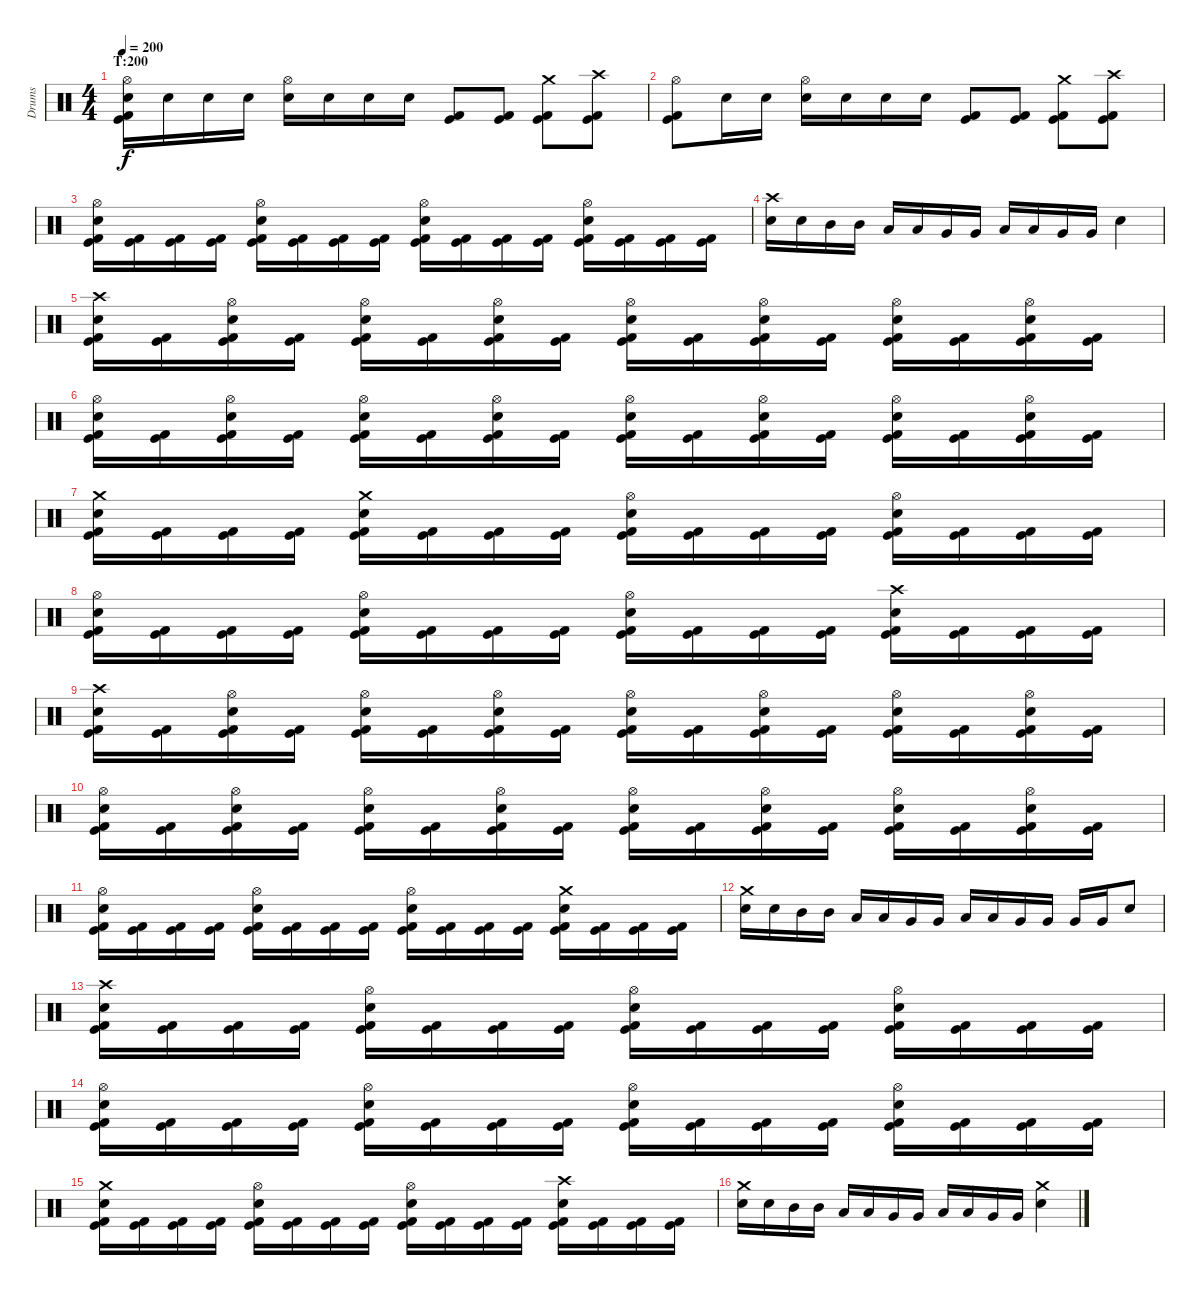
\track ("Drums" "Drums") {instrument percussion}
\staff {score}
\articulation defaults
\ts (4 4)
\section ("" "T:200")
\tempo 200
\clef neutral
\ks c
("Hi-Hat (open)" "Electric Snare (hit)" "Kick (hit)" "Kick (hit) 2").16{dy f} "Electric Snare (hit)".16 "Electric Snare (hit)".16 "Electric Snare (hit)".16 ("Hi-Hat (open)" "Electric Snare (hit)").16 "Electric Snare (hit)".16 "Electric Snare (hit)".16 "Electric Snare (hit)".16 ("Kick (hit)" "Kick (hit) 2").8 ("Kick (hit)" "Kick (hit) 2").8 ("Crash medium (hit)" "Kick (hit)" "Kick (hit) 2").8 ("Crash high (hit)" "Kick (hit)" "Kick (hit) 2").8 |
("Hi-Hat (open)" "Kick (hit)" "Kick (hit) 2").8 "Electric Snare (hit)".16 "Electric Snare (hit)".16 ("Hi-Hat (open)" "Electric Snare (hit)").16 "Electric Snare (hit)".16 "Electric Snare (hit)".16 "Electric Snare (hit)".16 ("Kick (hit)" "Kick (hit) 2").8 ("Kick (hit)" "Kick (hit) 2").8 ("Crash medium (hit)" "Kick (hit)" "Kick (hit) 2").8 ("Crash high (hit)" "Kick (hit)" "Kick (hit) 2").8 |
("Hi-Hat (open)" "Electric Snare (hit)" "Kick (hit)" "Kick (hit) 2").16 ("Kick (hit)" "Kick (hit) 2").16 ("Kick (hit)" "Kick (hit) 2").16 ("Kick (hit)" "Kick (hit) 2").16 ("Hi-Hat (open)" "Electric Snare (hit)" "Kick (hit)" "Kick (hit) 2").16 ("Kick (hit)" "Kick (hit) 2").16 ("Kick (hit)" "Kick (hit) 2").16 ("Kick (hit)" "Kick (hit) 2").16 ("Hi-Hat (open)" "Electric Snare (hit)" "Kick (hit)" "Kick (hit) 2").16 ("Kick (hit)" "Kick (hit) 2").16 ("Kick (hit)" "Kick (hit) 2").16 ("Kick (hit)" "Kick (hit) 2").16 ("Hi-Hat (open)" "Electric Snare (hit)" "Kick (hit)" "Kick (hit) 2").16 ("Kick (hit)" "Kick (hit) 2").16 ("Kick (hit)" "Kick (hit) 2").16 ("Kick (hit)" "Kick (hit) 2").16 |
("Crash high (hit)" "Electric Snare (hit)").16 "Electric Snare (hit)".16 "Mid Tom (hit)".16 "Mid Tom (hit)".16 "Low Tom (hit)".16 "Low Tom (hit)".16 "Very Low Tom (hit)".16 "Very Low Tom (hit)".16 "Low Tom (hit)".16 "Low Tom (hit)".16 "Very Low Tom (hit)".16 "Very Low Tom (hit)".16 "Electric Snare (hit)".4 |
("Crash high (hit)" "Electric Snare (hit)" "Kick (hit)" "Kick (hit) 2").16 ("Kick (hit)" "Kick (hit) 2").16 ("Hi-Hat (open)" "Electric Snare (hit)" "Kick (hit)" "Kick (hit) 2").16 ("Kick (hit)" "Kick (hit) 2").16 ("Hi-Hat (open)" "Electric Snare (hit)" "Kick (hit)" "Kick (hit) 2").16 ("Kick (hit)" "Kick (hit) 2").16 ("Hi-Hat (open)" "Electric Snare (hit)" "Kick (hit)" "Kick (hit) 2").16 ("Kick (hit)" "Kick (hit) 2").16 ("Hi-Hat (open)" "Electric Snare (hit)" "Kick (hit)" "Kick (hit) 2").16 ("Kick (hit)" "Kick (hit) 2").16 ("Hi-Hat (open)" "Electric Snare (hit)" "Kick (hit)" "Kick (hit) 2").16 ("Kick (hit)" "Kick (hit) 2").16 ("Hi-Hat (open)" "Electric Snare (hit)" "Kick (hit)" "Kick (hit) 2").16 ("Kick (hit)" "Kick (hit) 2").16 ("Hi-Hat (open)" "Electric Snare (hit)" "Kick (hit)" "Kick (hit) 2").16 ("Kick (hit)" "Kick (hit) 2").16 |
("Hi-Hat (open)" "Electric Snare (hit)" "Kick (hit)" "Kick (hit) 2").16 ("Kick (hit)" "Kick (hit) 2").16 ("Hi-Hat (open)" "Electric Snare (hit)" "Kick (hit)" "Kick (hit) 2").16 ("Kick (hit)" "Kick (hit) 2").16 ("Hi-Hat (open)" "Electric Snare (hit)" "Kick (hit)" "Kick (hit) 2").16 ("Kick (hit)" "Kick (hit) 2").16 ("Hi-Hat (open)" "Electric Snare (hit)" "Kick (hit)" "Kick (hit) 2").16 ("Kick (hit)" "Kick (hit) 2").16 ("Hi-Hat (open)" "Electric Snare (hit)" "Kick (hit)" "Kick (hit) 2").16 ("Kick (hit)" "Kick (hit) 2").16 ("Hi-Hat (open)" "Electric Snare (hit)" "Kick (hit)" "Kick (hit) 2").16 ("Kick (hit)" "Kick (hit) 2").16 ("Hi-Hat (open)" "Electric Snare (hit)" "Kick (hit)" "Kick (hit) 2").16 ("Kick (hit)" "Kick (hit) 2").16 ("Hi-Hat (open)" "Electric Snare (hit)" "Kick (hit)" "Kick (hit) 2").16 ("Kick (hit)" "Kick (hit) 2").16 |
("Crash medium (hit)" "Electric Snare (hit)" "Kick (hit)" "Kick (hit) 2").16 ("Kick (hit)" "Kick (hit) 2").16 ("Kick (hit)" "Kick (hit) 2").16 ("Kick (hit)" "Kick (hit) 2").16 ("Crash medium (hit)" "Electric Snare (hit)" "Kick (hit)" "Kick (hit) 2").16 ("Kick (hit)" "Kick (hit) 2").16 ("Kick (hit)" "Kick (hit) 2").16 ("Kick (hit)" "Kick (hit) 2").16 ("Hi-Hat (open)" "Electric Snare (hit)" "Kick (hit)" "Kick (hit) 2").16 ("Kick (hit)" "Kick (hit) 2").16 ("Kick (hit)" "Kick (hit) 2").16 ("Kick (hit)" "Kick (hit) 2").16 ("Hi-Hat (open)" "Electric Snare (hit)" "Kick (hit)" "Kick (hit) 2").16 ("Kick (hit)" "Kick (hit) 2").16 ("Kick (hit)" "Kick (hit) 2").16 ("Kick (hit)" "Kick (hit) 2").16 |
("Hi-Hat (open)" "Electric Snare (hit)" "Kick (hit)" "Kick (hit) 2").16 ("Kick (hit)" "Kick (hit) 2").16 ("Kick (hit)" "Kick (hit) 2").16 ("Kick (hit)" "Kick (hit) 2").16 ("Hi-Hat (open)" "Electric Snare (hit)" "Kick (hit)" "Kick (hit) 2").16 ("Kick (hit)" "Kick (hit) 2").16 ("Kick (hit)" "Kick (hit) 2").16 ("Kick (hit)" "Kick (hit) 2").16 ("Hi-Hat (open)" "Electric Snare (hit)" "Kick (hit)" "Kick (hit) 2").16 ("Kick (hit)" "Kick (hit) 2").16 ("Kick (hit)" "Kick (hit) 2").16 ("Kick (hit)" "Kick (hit) 2").16 ("Crash high (hit)" "Electric Snare (hit)" "Kick (hit)" "Kick (hit) 2").16 ("Kick (hit)" "Kick (hit) 2").16 ("Kick (hit)" "Kick (hit) 2").16 ("Kick (hit)" "Kick (hit) 2").16 |
("Crash high (hit)" "Electric Snare (hit)" "Kick (hit)" "Kick (hit) 2").16 ("Kick (hit)" "Kick (hit) 2").16 ("Hi-Hat (open)" "Electric Snare (hit)" "Kick (hit)" "Kick (hit) 2").16 ("Kick (hit)" "Kick (hit) 2").16 ("Hi-Hat (open)" "Electric Snare (hit)" "Kick (hit)" "Kick (hit) 2").16 ("Kick (hit)" "Kick (hit) 2").16 ("Hi-Hat (open)" "Electric Snare (hit)" "Kick (hit)" "Kick (hit) 2").16 ("Kick (hit)" "Kick (hit) 2").16 ("Hi-Hat (open)" "Electric Snare (hit)" "Kick (hit)" "Kick (hit) 2").16 ("Kick (hit)" "Kick (hit) 2").16 ("Hi-Hat (open)" "Electric Snare (hit)" "Kick (hit)" "Kick (hit) 2").16 ("Kick (hit)" "Kick (hit) 2").16 ("Hi-Hat (open)" "Electric Snare (hit)" "Kick (hit)" "Kick (hit) 2").16 ("Kick (hit)" "Kick (hit) 2").16 ("Hi-Hat (open)" "Electric Snare (hit)" "Kick (hit)" "Kick (hit) 2").16 ("Kick (hit)" "Kick (hit) 2").16 |
("Hi-Hat (open)" "Electric Snare (hit)" "Kick (hit)" "Kick (hit) 2").16 ("Kick (hit)" "Kick (hit) 2").16 ("Hi-Hat (open)" "Electric Snare (hit)" "Kick (hit)" "Kick (hit) 2").16 ("Kick (hit)" "Kick (hit) 2").16 ("Hi-Hat (open)" "Electric Snare (hit)" "Kick (hit)" "Kick (hit) 2").16 ("Kick (hit)" "Kick (hit) 2").16 ("Hi-Hat (open)" "Electric Snare (hit)" "Kick (hit)" "Kick (hit) 2").16 ("Kick (hit)" "Kick (hit) 2").16 ("Hi-Hat (open)" "Electric Snare (hit)" "Kick (hit)" "Kick (hit) 2").16 ("Kick (hit)" "Kick (hit) 2").16 ("Hi-Hat (open)" "Electric Snare (hit)" "Kick (hit)" "Kick (hit) 2").16 ("Kick (hit)" "Kick (hit) 2").16 ("Hi-Hat (open)" "Electric Snare (hit)" "Kick (hit)" "Kick (hit) 2").16 ("Kick (hit)" "Kick (hit) 2").16 ("Hi-Hat (open)" "Electric Snare (hit)" "Kick (hit)" "Kick (hit) 2").16 ("Kick (hit)" "Kick (hit) 2").16 |
("Hi-Hat (open)" "Electric Snare (hit)" "Kick (hit)" "Kick (hit) 2").16 ("Kick (hit)" "Kick (hit) 2").16 ("Kick (hit)" "Kick (hit) 2").16 ("Kick (hit)" "Kick (hit) 2").16 ("Hi-Hat (open)" "Electric Snare (hit)" "Kick (hit)" "Kick (hit) 2").16 ("Kick (hit)" "Kick (hit) 2").16 ("Kick (hit)" "Kick (hit) 2").16 ("Kick (hit)" "Kick (hit) 2").16 ("Hi-Hat (open)" "Electric Snare (hit)" "Kick (hit)" "Kick (hit) 2").16 ("Kick (hit)" "Kick (hit) 2").16 ("Kick (hit)" "Kick (hit) 2").16 ("Kick (hit)" "Kick (hit) 2").16 ("Crash medium (hit)" "Electric Snare (hit)" "Kick (hit)" "Kick (hit) 2").16 ("Kick (hit)" "Kick (hit) 2").16 ("Kick (hit)" "Kick (hit) 2").16 ("Kick (hit)" "Kick (hit) 2").16 |
("Crash medium (hit)" "Electric Snare (hit)").16 "Electric Snare (hit)".16 "Mid Tom (hit)".16 "Mid Tom (hit)".16 "Low Tom (hit)".16 "Low Tom (hit)".16 "Very Low Tom (hit)".16 "Very Low Tom (hit)".16 "Low Tom (hit)".16 "Low Tom (hit)".16 "Very Low Tom (hit)".16 "Very Low Tom (hit)".16 "Very Low Tom (hit)".16 "Very Low Tom (hit)".16 "Electric Snare (hit)".8 |
("Crash high (hit)" "Electric Snare (hit)" "Kick (hit)" "Kick (hit) 2").16 ("Kick (hit)" "Kick (hit) 2").16 ("Kick (hit)" "Kick (hit) 2").16 ("Kick (hit)" "Kick (hit) 2").16 ("Hi-Hat (open)" "Electric Snare (hit)" "Kick (hit)" "Kick (hit) 2").16 ("Kick (hit)" "Kick (hit) 2").16 ("Kick (hit)" "Kick (hit) 2").16 ("Kick (hit)" "Kick (hit) 2").16 ("Hi-Hat (open)" "Electric Snare (hit)" "Kick (hit)" "Kick (hit) 2").16 ("Kick (hit)" "Kick (hit) 2").16 ("Kick (hit)" "Kick (hit) 2").16 ("Kick (hit)" "Kick (hit) 2").16 ("Hi-Hat (open)" "Electric Snare (hit)" "Kick (hit)" "Kick (hit) 2").16 ("Kick (hit)" "Kick (hit) 2").16 ("Kick (hit)" "Kick (hit) 2").16 ("Kick (hit)" "Kick (hit) 2").16 |
("Hi-Hat (open)" "Electric Snare (hit)" "Kick (hit)" "Kick (hit) 2").16 ("Kick (hit)" "Kick (hit) 2").16 ("Kick (hit)" "Kick (hit) 2").16 ("Kick (hit)" "Kick (hit) 2").16 ("Hi-Hat (open)" "Electric Snare (hit)" "Kick (hit)" "Kick (hit) 2").16 ("Kick (hit)" "Kick (hit) 2").16 ("Kick (hit)" "Kick (hit) 2").16 ("Kick (hit)" "Kick (hit) 2").16 ("Hi-Hat (open)" "Electric Snare (hit)" "Kick (hit)" "Kick (hit) 2").16 ("Kick (hit)" "Kick (hit) 2").16 ("Kick (hit)" "Kick (hit) 2").16 ("Kick (hit)" "Kick (hit) 2").16 ("Hi-Hat (open)" "Electric Snare (hit)" "Kick (hit)" "Kick (hit) 2").16 ("Kick (hit)" "Kick (hit) 2").16 ("Kick (hit)" "Kick (hit) 2").16 ("Kick (hit)" "Kick (hit) 2").16 |
("Crash medium (hit)" "Electric Snare (hit)" "Kick (hit)" "Kick (hit) 2").16 ("Kick (hit)" "Kick (hit) 2").16 ("Kick (hit)" "Kick (hit) 2").16 ("Kick (hit)" "Kick (hit) 2").16 ("Hi-Hat (open)" "Electric Snare (hit)" "Kick (hit)" "Kick (hit) 2").16 ("Kick (hit)" "Kick (hit) 2").16 ("Kick (hit)" "Kick (hit) 2").16 ("Kick (hit)" "Kick (hit) 2").16 ("Hi-Hat (open)" "Electric Snare (hit)" "Kick (hit)" "Kick (hit) 2").16 ("Kick (hit)" "Kick (hit) 2").16 ("Kick (hit)" "Kick (hit) 2").16 ("Kick (hit)" "Kick (hit) 2").16 ("Crash high (hit)" "Electric Snare (hit)" "Kick (hit)" "Kick (hit) 2").16 ("Kick (hit)" "Kick (hit) 2").16 ("Kick (hit)" "Kick (hit) 2").16 ("Kick (hit)" "Kick (hit) 2").16 |
("Crash medium (hit)" "Electric Snare (hit)").16 "Electric Snare (hit)".16 "Mid Tom (hit)".16 "Mid Tom (hit)".16 "Low Tom (hit)".16 "Low Tom (hit)".16 "Very Low Tom (hit)".16 "Very Low Tom (hit)".16 "Low Tom (hit)".16 "Low Tom (hit)".16 "Very Low Tom (hit)".16 "Very Low Tom (hit)".16 ("Crash medium (hit)" "Electric Snare (hit)").4
